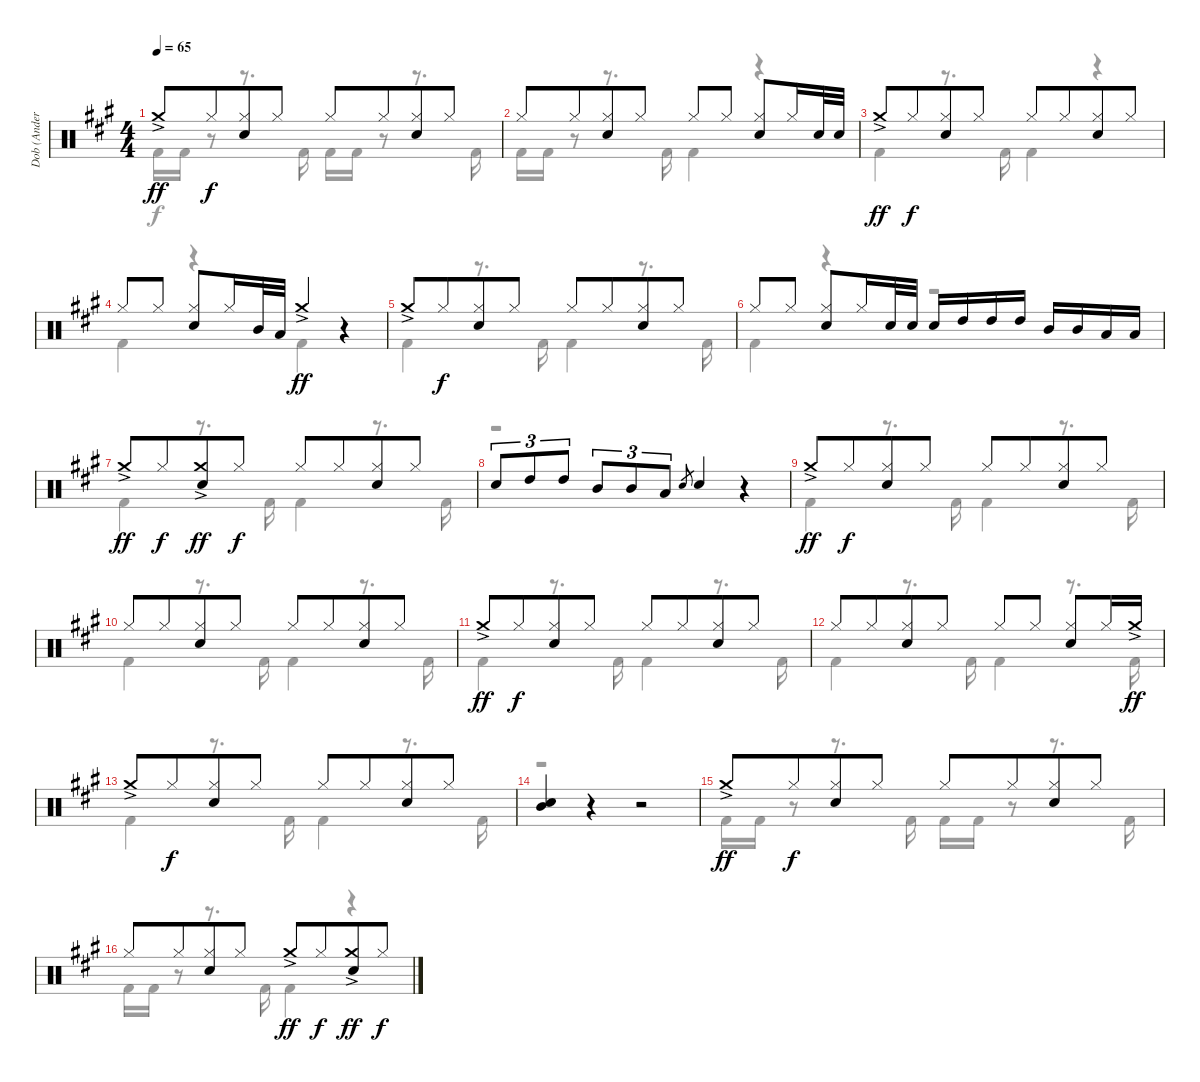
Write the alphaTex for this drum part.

\track ("Dob (Anders Johansson)" "Dob (Ander") {instrument percussion}
\staff {score}
\articulation defaults
\voice
\ts (4 4)
\tempo 65
\clef neutral
\ks a "Crash medium (hit)"{ac}.8{dy ff} "Hi-Hat (closed)".8{dy f beam merge}
("Hi-Hat (closed)" "Electric Snare (hit)").8 "Hi-Hat (closed)".8 "Hi-Hat (closed)".8 "Hi-Hat (closed)".8{beam merge} ("Hi-Hat (closed)" "Electric Snare (hit)").8 "Hi-Hat (closed)".8 |
"Hi-Hat (closed)".8 "Hi-Hat (closed)".8{beam merge} ("Hi-Hat (closed)" "Electric Snare (hit)").8 "Hi-Hat (closed)".8 "Hi-Hat (closed)".8 "Hi-Hat (closed)".8 ("Hi-Hat (closed)" "Electric Snare (hit)").8 "Hi-Hat (closed)".16 "Electric Snare (hit)".32 "Electric Snare (hit)".32 |
"Crash medium (hit)"{ac}.8{dy ff} "Hi-Hat (closed)".8{dy f beam merge} ("Hi-Hat (closed)" "Electric Snare (hit)").8 "Hi-Hat (closed)".8 "Hi-Hat (closed)".8 "Hi-Hat (closed)".8{beam merge} ("Hi-Hat (closed)" "Electric Snare (hit)").8 "Hi-Hat (closed)".8 |
"Hi-Hat (closed)".8 "Hi-Hat (closed)".8 ("Hi-Hat (closed)" "Electric Snare (hit)").8 "Hi-Hat (closed)".16 "Mid Tom (hit)".32 "Low Tom (hit)".32 "Crash medium (hit)"{ac}.4{dy ff} r.4 |
"Crash medium (hit)"{ac}.8 "Hi-Hat (closed)".8{dy f beam merge} ("Hi-Hat (closed)" "Electric Snare (hit)").8 "Hi-Hat (closed)".8 "Hi-Hat (closed)".8 "Hi-Hat (closed)".8{beam merge} ("Hi-Hat (closed)" "Electric Snare (hit)").8 "Hi-Hat (closed)".8 |
"Hi-Hat (closed)".8 "Hi-Hat (closed)".8{beam split} ("Hi-Hat (closed)" "Electric Snare (hit)").8 "Hi-Hat (closed)".16 "Electric Snare (hit)".32 "Electric Snare (hit)".32 "Electric Snare (hit)".16 "High Tom (hit)".16 "High Tom (hit)".16 "High Tom (hit)".16 "Mid Tom (hit)".16 "Mid Tom (hit)".16 "Low Tom (hit)".16 "Low Tom (hit)".16 |
"Crash medium (hit)"{ac}.8{dy ff} "Hi-Hat (closed)".8{dy f beam merge} ("Crash medium (hit)"{ac} "Electric Snare (hit)").8{dy ff} "Hi-Hat (closed)".8{dy f} "Hi-Hat (closed)".8 "Hi-Hat (closed)".8{beam merge} ("Hi-Hat (closed)" "Electric Snare (hit)").8 "Hi-Hat (closed)".8 |
"Electric Snare (hit)".8{tu (3 2)} "High Tom (hit)".8{tu (3 2)} "High Tom (hit)".8{tu (3 2)} "Mid Tom (hit)".8{tu (3 2)} "Mid Tom (hit)".8{tu (3 2)} "Low Tom (hit)".8{tu (3 2)} "Electric Snare (hit)".8{gr} "Electric Snare (hit)".4 r.4 |
"Crash medium (hit)"{ac}.8{dy ff} "Hi-Hat (closed)".8{dy f beam merge} ("Hi-Hat (closed)" "Electric Snare (hit)").8 "Hi-Hat (closed)".8 "Hi-Hat (closed)".8 "Hi-Hat (closed)".8{beam merge} ("Hi-Hat (closed)" "Electric Snare (hit)").8 "Hi-Hat (closed)".8 |
"Hi-Hat (closed)".8 "Hi-Hat (closed)".8{beam merge} ("Hi-Hat (closed)" "Electric Snare (hit)").8 "Hi-Hat (closed)".8 "Hi-Hat (closed)".8 "Hi-Hat (closed)".8{beam merge} ("Hi-Hat (closed)" "Electric Snare (hit)").8 "Hi-Hat (closed)".8 |
"Crash medium (hit)"{ac}.8{dy ff} "Hi-Hat (closed)".8{dy f beam merge} ("Hi-Hat (closed)" "Electric Snare (hit)").8 "Hi-Hat (closed)".8 "Hi-Hat (closed)".8 "Hi-Hat (closed)".8{beam merge} ("Hi-Hat (closed)" "Electric Snare (hit)").8 "Hi-Hat (closed)".8 |
"Hi-Hat (closed)".8 "Hi-Hat (closed)".8{beam merge} ("Hi-Hat (closed)" "Electric Snare (hit)").8 "Hi-Hat (closed)".8 "Hi-Hat (closed)".8 "Hi-Hat (closed)".8{beam split} ("Hi-Hat (closed)" "Electric Snare (hit)").8 "Hi-Hat (closed)".16 "Crash medium (hit)"{ac}.16{dy ff} |
"Crash medium (hit)"{ac}.8 "Hi-Hat (closed)".8{dy f beam merge} ("Hi-Hat (closed)" "Electric Snare (hit)").8 "Hi-Hat (closed)".8 "Hi-Hat (closed)".8 "Hi-Hat (closed)".8{beam merge} ("Hi-Hat (closed)" "Electric Snare (hit)").8 "Hi-Hat (closed)".8 |
("Mid Tom (hit)" "Electric Snare (hit)").4 r.4 r.2 |
"Crash medium (hit)"{ac}.8{dy ff} "Hi-Hat (closed)".8{dy f beam merge} ("Hi-Hat (closed)" "Electric Snare (hit)").8 "Hi-Hat (closed)".8 "Hi-Hat (closed)".8 "Hi-Hat (closed)".8{beam merge} ("Hi-Hat (closed)" "Electric Snare (hit)").8 "Hi-Hat (closed)".8 |
"Hi-Hat (closed)".8 "Hi-Hat (closed)".8{beam merge} ("Hi-Hat (closed)" "Electric Snare (hit)").8 "Hi-Hat (closed)".8 "Crash medium (hit)"{ac}.8{dy ff} "Hi-Hat (closed)".8{dy f beam merge} ("Crash medium (hit)"{ac} "Electric Snare (hit)").8{dy ff} "Hi-Hat (closed)".8{dy f}
\voice
\clef neutral
\ottava regular
\simile none
\ks a "Kick (hit) 2".16{dy f} "Kick (hit) 2".16
r.8 r.8{d} "Kick (hit) 2".16 "Kick (hit) 2".16 "Kick (hit) 2".16 r.8 r.8{d} "Kick (hit) 2".16 |
"Kick (hit) 2".16 "Kick (hit) 2".16 r.8 r.8{d} "Kick (hit) 2".16 "Kick (hit) 2".4 r.4 |
"Kick (hit) 2".4 r.8{d} "Kick (hit) 2".16 "Kick (hit) 2".4 r.4 |
"Kick (hit) 2".4 r.4 "Kick (hit) 2".4 r.4 |
"Kick (hit) 2".4 r.8{d} "Kick (hit) 2".16 "Kick (hit) 2".4 r.8{d} "Kick (hit) 2".16 |
"Kick (hit) 2".4 r.4 r.2 |
"Kick (hit) 2".4 r.8{d} "Kick (hit) 2".16 "Kick (hit) 2".4 r.8{d} "Kick (hit) 2".16 |
r.1 |
"Kick (hit) 2".4 r.8{d} "Kick (hit) 2".16 "Kick (hit) 2".4 r.8{d} "Kick (hit) 2".16 |
"Kick (hit) 2".4 r.8{d} "Kick (hit) 2".16 "Kick (hit) 2".4 r.8{d} "Kick (hit) 2".16 |
"Kick (hit) 2".4 r.8{d} "Kick (hit) 2".16 "Kick (hit) 2".4 r.8{d} "Kick (hit) 2".16 |
"Kick (hit) 2".4 r.8{d} "Kick (hit) 2".16 "Kick (hit) 2".4 r.8{d} "Kick (hit) 2".16 |
"Kick (hit) 2".4 r.8{d} "Kick (hit) 2".16 "Kick (hit) 2".4 r.8{d} "Kick (hit) 2".16 |
r.1 |
"Kick (hit) 2".16 "Kick (hit) 2".16 r.8 r.8{d} "Kick (hit) 2".16 "Kick (hit) 2".16 "Kick (hit) 2".16 r.8 r.8{d} "Kick (hit) 2".16 |
"Kick (hit) 2".16 "Kick (hit) 2".16 r.8 r.8{d} "Kick (hit) 2".16 "Kick (hit) 2".4 r.4
